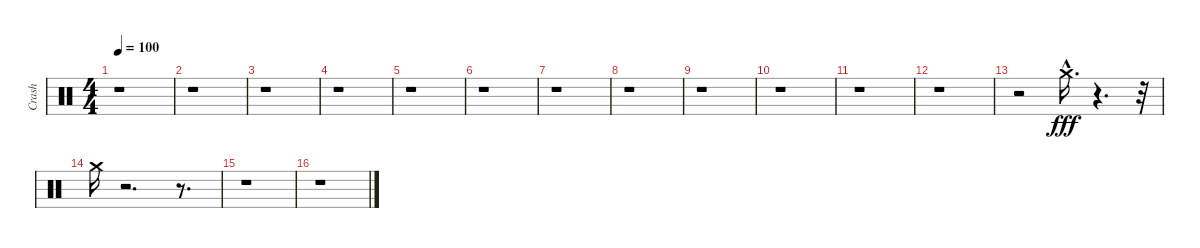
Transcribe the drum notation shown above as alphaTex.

\track ("Crash" "Crash") {instrument percussion}
\staff {score}
\articulation defaults
\ts (4 4)
\tempo 100
\clef neutral
\ks c
r.1{dy fff} |
r.1 |
r.1 |
r.1 |
r.1 |
r.1 |
r.1 |
r.1 |
r.1 |
r.1 |
r.1 |
r.1 |
r.2 "Crash medium (hit)"{hac}.16{d} r.4{d} r.32 |
"Crash medium (hit)".16 r.2{d} r.8{d} |
r.1 |
r.1
